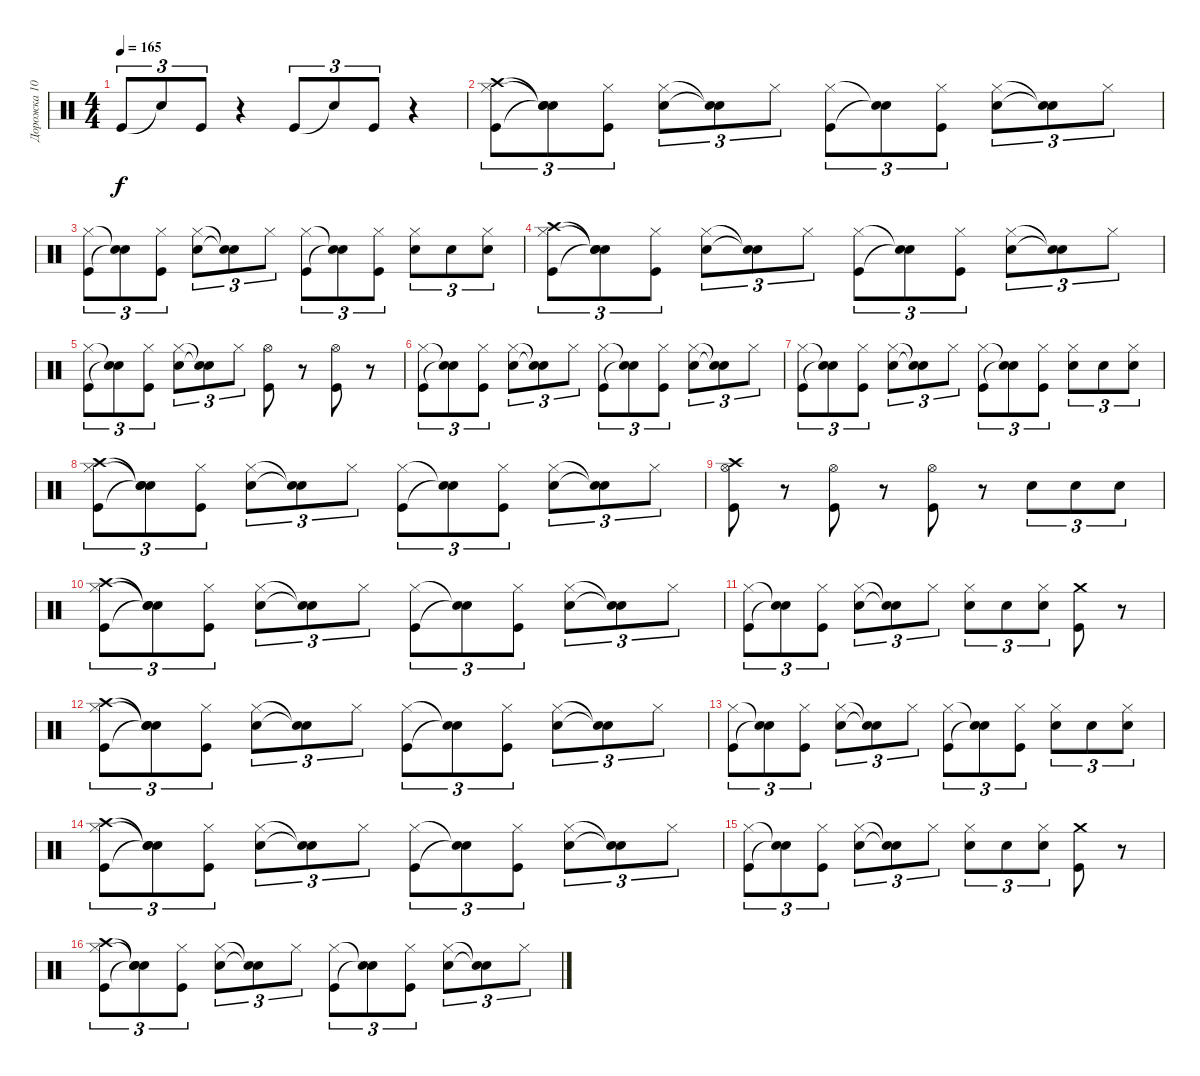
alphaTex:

\track ("Дорожка 10" "Дорожка 10") {instrument percussion}
\staff {score}
\articulation defaults
\ts (4 4)
\tempo 165
\clef neutral
\ks c "Kick (hit)".8{tu (3 2) dy f} "Snare (hit)"{t}.8{tu (3 2)} "Kick (hit)".8{tu (3 2)}
r.4 "Kick (hit)".8{tu (3 2)} "Snare (hit)"{t}.8{tu (3 2)} "Kick (hit)".8{tu (3 2)} r.4 |
("Kick (hit)" "Crash high (hit)" "Hi-Hat (closed)").8{tu (3 2)} ("Snare (hit)"{t} "Snare (hit)"{t} "Snare (hit)"{t}).8{tu (3 2)} ("Hi-Hat (closed)" "Kick (hit)").8{tu (3 2)} ("Electric Snare (hit)" "Hi-Hat (closed)").8{tu (3 2)} ("Snare (hit)"{t} "Snare (hit)"{t}).8{tu (3 2)} "Hi-Hat (closed)".8{tu (3 2)} ("Kick (hit)" "Hi-Hat (closed)").8{tu (3 2)} ("Snare (hit)"{t} "Snare (hit)"{t}).8{tu (3 2)} ("Kick (hit)" "Hi-Hat (closed)").8{tu (3 2)} ("Electric Snare (hit)" "Hi-Hat (closed)").8{tu (3 2)} ("Snare (hit)"{t} "Snare (hit)"{t}).8{tu (3 2)} "Hi-Hat (closed)".8{tu (3 2)} |
("Kick (hit)" "Hi-Hat (closed)").8{tu (3 2)} ("Snare (hit)"{t} "Snare (hit)"{t}).8{tu (3 2)} ("Kick (hit)" "Hi-Hat (closed)").8{tu (3 2)} ("Electric Snare (hit)" "Hi-Hat (closed)").8{tu (3 2)} ("Snare (hit)"{t} "Snare (hit)"{t}).8{tu (3 2)} "Hi-Hat (closed)".8{tu (3 2)} ("Hi-Hat (closed)" "Kick (hit)").8{tu (3 2)} ("Snare (hit)"{t} "Snare (hit)"{t}).8{tu (3 2)} ("Kick (hit)" "Hi-Hat (closed)").8{tu (3 2)} ("Hi-Hat (closed)" "Electric Snare (hit)").8{tu (3 2)} "Electric Snare (hit)".8{tu (3 2)} ("Electric Snare (hit)" "Hi-Hat (closed)").8{tu (3 2)} |
("Crash high (hit)" "Hi-Hat (closed)" "Kick (hit)").8{tu (3 2)} ("Snare (hit)"{t} "Snare (hit)"{t} "Snare (hit)"{t}).8{tu (3 2)} ("Hi-Hat (closed)" "Kick (hit)").8{tu (3 2)} ("Electric Snare (hit)" "Hi-Hat (closed)").8{tu (3 2)} ("Snare (hit)"{t} "Snare (hit)"{t}).8{tu (3 2)} "Hi-Hat (closed)".8{tu (3 2)} ("Hi-Hat (closed)" "Kick (hit)").8{tu (3 2)} ("Snare (hit)"{t} "Snare (hit)"{t}).8{tu (3 2)} ("Hi-Hat (closed)" "Kick (hit)").8{tu (3 2)} ("Hi-Hat (closed)" "Electric Snare (hit)").8{tu (3 2)} ("Snare (hit)"{t} "Snare (hit)"{t}).8{tu (3 2)} "Hi-Hat (closed)".8{tu (3 2)} |
("Kick (hit)" "Hi-Hat (closed)").8{tu (3 2)} ("Snare (hit)"{t} "Snare (hit)"{t}).8{tu (3 2)} ("Kick (hit)" "Hi-Hat (closed)").8{tu (3 2)} ("Hi-Hat (closed)" "Electric Snare (hit)").8{tu (3 2)} ("Snare (hit)"{t} "Snare (hit)"{t}).8{tu (3 2)} "Hi-Hat (closed)".8{tu (3 2)} ("Kick (hit)" "Hi-Hat (open)").8 r.8 ("Kick (hit)" "Hi-Hat (open)").8 r.8 |
("Hi-Hat (closed)" "Kick (hit)").8{tu (3 2)} ("Snare (hit)"{t} "Snare (hit)"{t}).8{tu (3 2)} ("Hi-Hat (closed)" "Kick (hit)").8{tu (3 2)} ("Hi-Hat (closed)" "Electric Snare (hit)").8{tu (3 2)} ("Snare (hit)"{t} "Snare (hit)"{t}).8{tu (3 2)} "Hi-Hat (closed)".8{tu (3 2)} ("Kick (hit)" "Hi-Hat (closed)").8{tu (3 2)} ("Snare (hit)"{t} "Snare (hit)"{t}).8{tu (3 2)} ("Kick (hit)" "Hi-Hat (closed)").8{tu (3 2)} ("Hi-Hat (closed)" "Electric Snare (hit)").8{tu (3 2)} ("Snare (hit)"{t} "Snare (hit)"{t}).8{tu (3 2)} "Hi-Hat (closed)".8{tu (3 2)} |
("Kick (hit)" "Hi-Hat (closed)").8{tu (3 2)} ("Snare (hit)"{t} "Snare (hit)"{t}).8{tu (3 2)} ("Hi-Hat (closed)" "Kick (hit)").8{tu (3 2)} ("Electric Snare (hit)" "Hi-Hat (closed)").8{tu (3 2)} ("Snare (hit)"{t} "Snare (hit)"{t}).8{tu (3 2)} "Hi-Hat (closed)".8{tu (3 2)} ("Kick (hit)" "Hi-Hat (closed)").8{tu (3 2)} ("Snare (hit)"{t} "Snare (hit)"{t}).8{tu (3 2)} ("Hi-Hat (closed)" "Kick (hit)").8{tu (3 2)} ("Electric Snare (hit)" "Hi-Hat (closed)").8{tu (3 2)} "Electric Snare (hit)".8{tu (3 2)} ("Hi-Hat (closed)" "Electric Snare (hit)").8{tu (3 2)} |
("Crash high (hit)" "Kick (hit)" "Hi-Hat (closed)").8{tu (3 2)} ("Snare (hit)"{t} "Snare (hit)"{t} "Snare (hit)"{t}).8{tu (3 2)} ("Kick (hit)" "Hi-Hat (closed)").8{tu (3 2)} ("Electric Snare (hit)" "Hi-Hat (closed)").8{tu (3 2)} ("Snare (hit)"{t} "Snare (hit)"{t}).8{tu (3 2)} "Hi-Hat (closed)".8{tu (3 2)} ("Kick (hit)" "Hi-Hat (closed)").8{tu (3 2)} ("Snare (hit)"{t} "Snare (hit)"{t}).8{tu (3 2)} ("Hi-Hat (closed)" "Kick (hit)").8{tu (3 2)} ("Electric Snare (hit)" "Hi-Hat (closed)").8{tu (3 2)} ("Snare (hit)"{t} "Snare (hit)"{t}).8{tu (3 2)} "Hi-Hat (closed)".8{tu (3 2)} |
("Kick (hit)" "Crash high (hit)" "Hi-Hat (open)").8 r.8 ("Hi-Hat (open)" "Kick (hit)").8 r.8 ("Kick (hit)" "Hi-Hat (open)").8 r.8 "Electric Snare (hit)".8{tu (3 2)} "Electric Snare (hit)".8{tu (3 2)} "Electric Snare (hit)".8{tu (3 2)} |
("Hi-Hat (closed)" "Crash high (hit)" "Kick (hit)").8{tu (3 2)} ("Snare (hit)"{t} "Snare (hit)"{t} "Snare (hit)"{t}).8{tu (3 2)} ("Kick (hit)" "Hi-Hat (closed)").8{tu (3 2)} ("Hi-Hat (closed)" "Electric Snare (hit)").8{tu (3 2)} ("Snare (hit)"{t} "Snare (hit)"{t}).8{tu (3 2)} "Hi-Hat (closed)".8{tu (3 2)} ("Kick (hit)" "Hi-Hat (closed)").8{tu (3 2)} ("Snare (hit)"{t} "Snare (hit)"{t}).8{tu (3 2)} ("Kick (hit)" "Hi-Hat (closed)").8{tu (3 2)} ("Electric Snare (hit)" "Hi-Hat (closed)").8{tu (3 2)} ("Snare (hit)"{t} "Snare (hit)"{t}).8{tu (3 2)} "Hi-Hat (closed)".8{tu (3 2)} |
("Hi-Hat (closed)" "Kick (hit)").8{tu (3 2)} ("Snare (hit)"{t} "Snare (hit)"{t}).8{tu (3 2)} ("Kick (hit)" "Hi-Hat (closed)").8{tu (3 2)} ("Electric Snare (hit)" "Hi-Hat (closed)").8{tu (3 2)} ("Snare (hit)"{t} "Snare (hit)"{t}).8{tu (3 2)} "Hi-Hat (closed)".8{tu (3 2)} ("Electric Snare (hit)" "Hi-Hat (closed)").8{tu (3 2)} "Electric Snare (hit)".8{tu (3 2)} ("Hi-Hat (closed)" "Electric Snare (hit)").8{tu (3 2)} ("Kick (hit)" "Crash medium (hit)").8 r.8 |
("Kick (hit)" "Crash high (hit)" "Hi-Hat (closed)").8{tu (3 2)} ("Snare (hit)"{t} "Snare (hit)"{t} "Snare (hit)"{t}).8{tu (3 2)} ("Kick (hit)" "Hi-Hat (closed)").8{tu (3 2)} ("Hi-Hat (closed)" "Electric Snare (hit)").8{tu (3 2)} ("Snare (hit)"{t} "Snare (hit)"{t}).8{tu (3 2)} "Hi-Hat (closed)".8{tu (3 2)} ("Kick (hit)" "Hi-Hat (closed)").8{tu (3 2)} ("Snare (hit)"{t} "Snare (hit)"{t}).8{tu (3 2)} ("Hi-Hat (closed)" "Kick (hit)").8{tu (3 2)} ("Hi-Hat (closed)" "Electric Snare (hit)").8{tu (3 2)} ("Snare (hit)"{t} "Snare (hit)"{t}).8{tu (3 2)} "Hi-Hat (closed)".8{tu (3 2)} |
("Hi-Hat (closed)" "Kick (hit)").8{tu (3 2)} ("Snare (hit)"{t} "Snare (hit)"{t}).8{tu (3 2)} ("Hi-Hat (closed)" "Kick (hit)").8{tu (3 2)} ("Electric Snare (hit)" "Hi-Hat (closed)").8{tu (3 2)} ("Snare (hit)"{t} "Snare (hit)"{t}).8{tu (3 2)} "Hi-Hat (closed)".8{tu (3 2)} ("Kick (hit)" "Hi-Hat (closed)").8{tu (3 2)} ("Snare (hit)"{t} "Snare (hit)"{t}).8{tu (3 2)} ("Kick (hit)" "Hi-Hat (closed)").8{tu (3 2)} ("Hi-Hat (closed)" "Electric Snare (hit)").8{tu (3 2)} "Electric Snare (hit)".8{tu (3 2)} ("Electric Snare (hit)" "Hi-Hat (closed)").8{tu (3 2)} |
("Crash high (hit)" "Hi-Hat (closed)" "Kick (hit)").8{tu (3 2)} ("Snare (hit)"{t} "Snare (hit)"{t} "Snare (hit)"{t}).8{tu (3 2)} ("Kick (hit)" "Hi-Hat (closed)").8{tu (3 2)} ("Electric Snare (hit)" "Hi-Hat (closed)").8{tu (3 2)} ("Snare (hit)"{t} "Snare (hit)"{t}).8{tu (3 2)} "Hi-Hat (closed)".8{tu (3 2)} ("Hi-Hat (closed)" "Kick (hit)").8{tu (3 2)} ("Snare (hit)"{t} "Snare (hit)"{t}).8{tu (3 2)} ("Kick (hit)" "Hi-Hat (closed)").8{tu (3 2)} ("Hi-Hat (closed)" "Electric Snare (hit)").8{tu (3 2)} ("Snare (hit)"{t} "Snare (hit)"{t}).8{tu (3 2)} "Hi-Hat (closed)".8{tu (3 2)} |
("Hi-Hat (closed)" "Kick (hit)").8{tu (3 2)} ("Snare (hit)"{t} "Snare (hit)"{t}).8{tu (3 2)} ("Hi-Hat (closed)" "Kick (hit)").8{tu (3 2)} ("Hi-Hat (closed)" "Electric Snare (hit)").8{tu (3 2)} ("Snare (hit)"{t} "Snare (hit)"{t}).8{tu (3 2)} "Hi-Hat (closed)".8{tu (3 2)} ("Hi-Hat (closed)" "Electric Snare (hit)").8{tu (3 2)} "Electric Snare (hit)".8{tu (3 2)} ("Electric Snare (hit)" "Hi-Hat (closed)").8{tu (3 2)} ("Kick (hit)" "Crash medium (hit)").8 r.8 |
("Kick (hit)" "Crash high (hit)" "Hi-Hat (closed)").8{tu (3 2)} ("Snare (hit)"{t} "Snare (hit)"{t} "Snare (hit)"{t}).8{tu (3 2)} ("Kick (hit)" "Hi-Hat (closed)").8{tu (3 2)} ("Electric Snare (hit)" "Hi-Hat (closed)").8{tu (3 2)} ("Snare (hit)"{t} "Snare (hit)"{t}).8{tu (3 2)} "Hi-Hat (closed)".8{tu (3 2)} ("Hi-Hat (closed)" "Kick (hit)").8{tu (3 2)} ("Snare (hit)"{t} "Snare (hit)"{t}).8{tu (3 2)} ("Kick (hit)" "Hi-Hat (closed)").8{tu (3 2)} ("Electric Snare (hit)" "Hi-Hat (closed)").8{tu (3 2)} ("Snare (hit)"{t} "Snare (hit)"{t}).8{tu (3 2)} "Hi-Hat (closed)".8{tu (3 2)}
